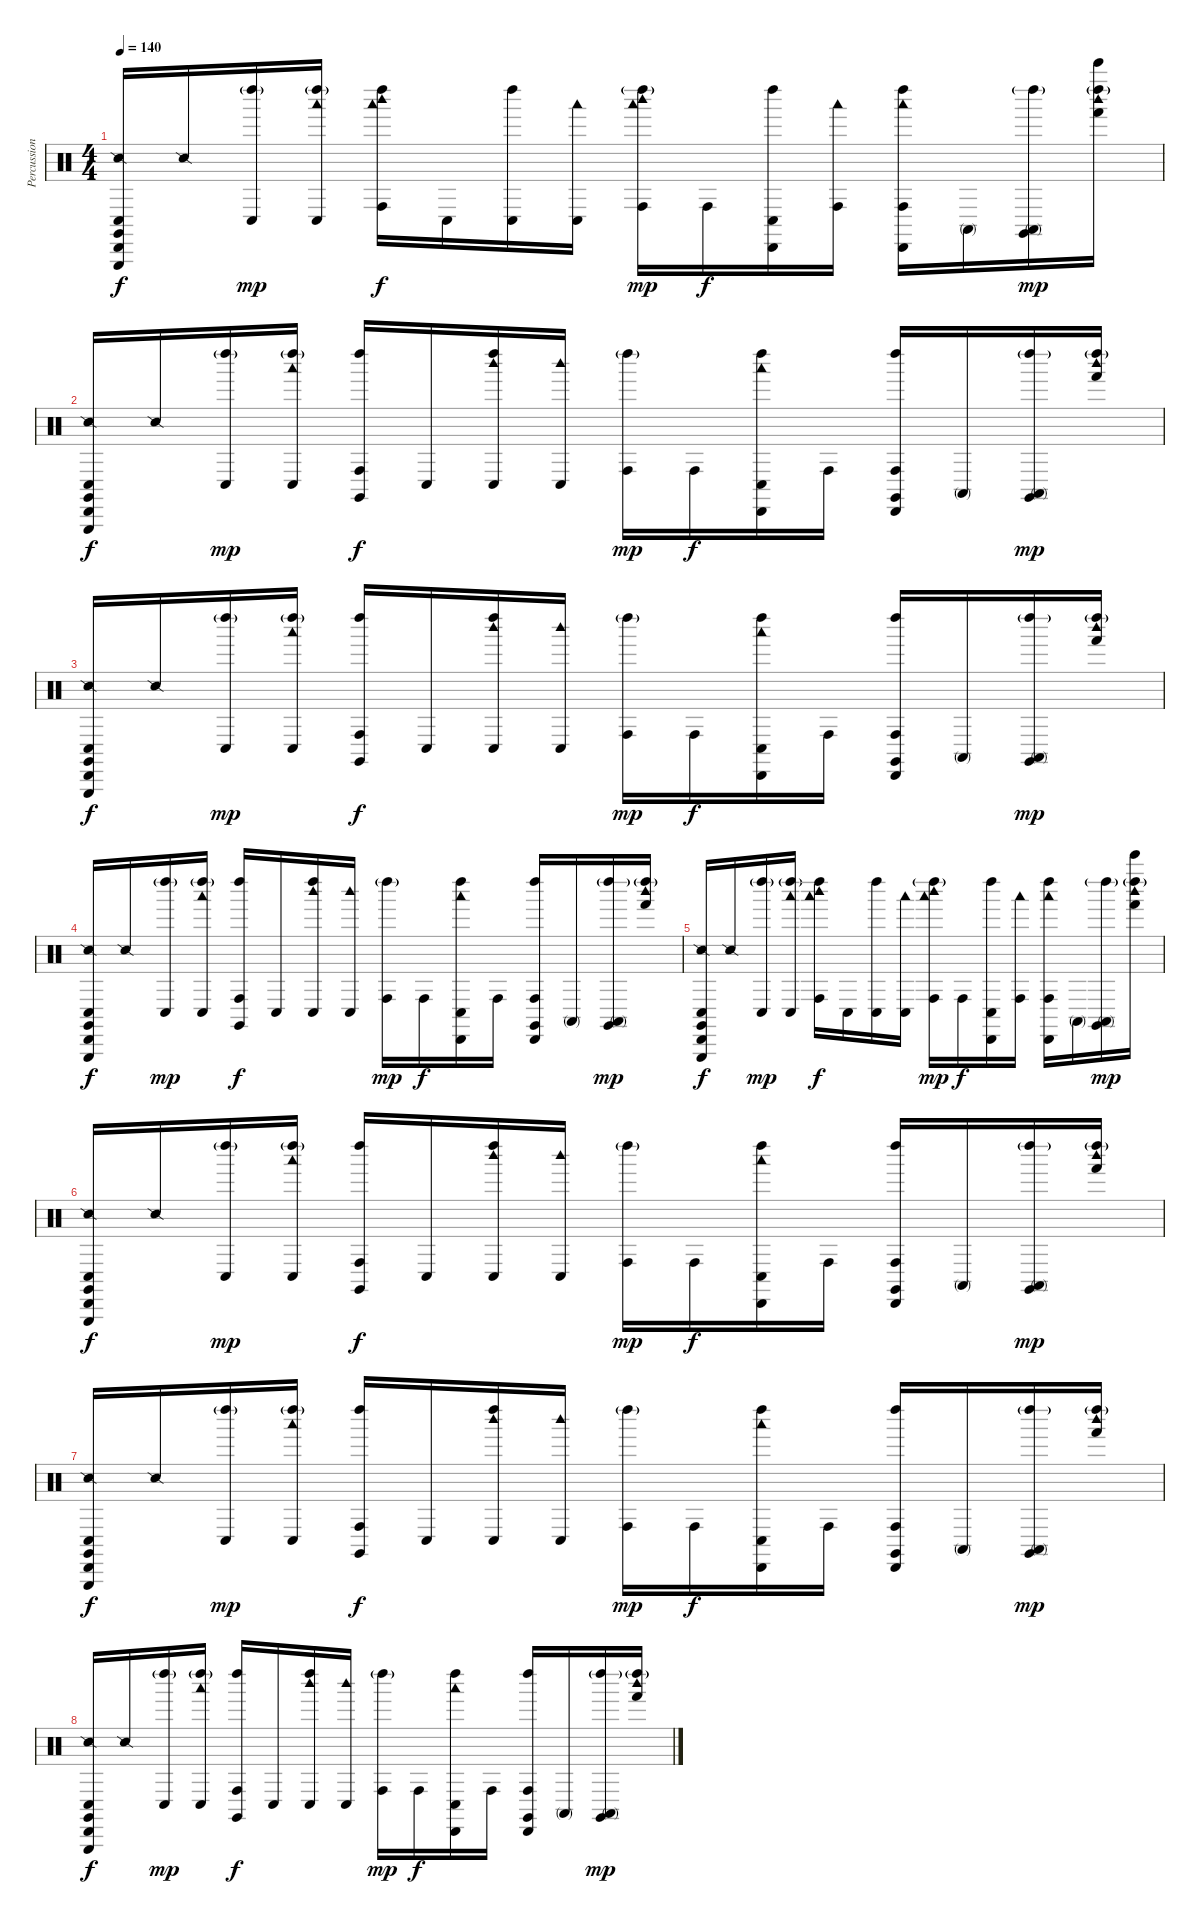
\track ("Percussions" "Percussion") {instrument percussion}
\staff {score}
\articulation defaults
\ts (4 4)
\tempo 140
\clef neutral
\ks c
("Conga low (hit)" "Snare (side stick) 2" "Claves (hit)" "Cabasa (hit)" "Triangle (hit)").16{dy f} "Snare (side stick) 2".16 ("Conga low (hit)" "Left Maraca (hit)"{g}).16{dy mp} ("Conga low (hit)" "Woodblock low (hit)" "Left Maraca (hit)"{g}).16 ("Conga high (hit)" "Woodblock low (hit)" "Woodblock high (hit)" "Left Maraca (hit)").16{dy f} "Conga low (hit)".16 ("Conga low (hit)" "Left Maraca (hit)").16 ("Conga low (hit)" "Woodblock low (hit)").16 ("Conga high (hit)" "Woodblock low (hit)" "Woodblock high (hit)" "Left Maraca (hit)"{g}).16{dy mp} "Conga high (hit)".16{dy f} ("Conga low (hit)" "Cabasa (hit)" "Left Maraca (hit)").16 ("Conga high (hit)" "Woodblock low (hit)").16 ("Conga high (hit)" "Woodblock low (hit)" "Cabasa (hit)" "Left Maraca (hit)").16 "Conga high (mute)".16 ("Conga high (mute)" "Claves (hit)" "Left Maraca (hit)"{g}).16{dy mp} ("Hand (hit)" "Woodblock high (hit)" "Bell Tree (hit)" "Left Maraca (hit)"{g}).16 |
("Conga low (hit)" "Snare (side stick) 2" "Claves (hit)" "Cabasa (hit)" "Triangle (hit)").16{dy f} "Snare (side stick) 2".16 ("Conga low (hit)" "Left Maraca (hit)"{g}).16{dy mp} ("Conga low (hit)" "Woodblock low (hit)" "Left Maraca (hit)"{g}).16 ("Conga high (hit)" "Claves (hit)" "Left Maraca (hit)").16{dy f} "Conga low (hit)".16 ("Conga low (hit)" "Woodblock high (hit)" "Left Maraca (hit)").16 ("Conga low (hit)" "Woodblock high (hit)").16 ("Conga high (hit)" "Left Maraca (hit)"{g}).16{dy mp} "Conga high (hit)".16{dy f} ("Conga low (hit)" "Woodblock low (hit)" "Cabasa (hit)" "Left Maraca (hit)").16 "Conga high (hit)".16 ("Conga high (hit)" "Claves (hit)" "Cabasa (hit)" "Left Maraca (hit)").16 "Conga high (mute)".16 ("Conga high (mute)" "Claves (hit)" "Left Maraca (hit)"{g}).16{dy mp} ("Hand (hit)" "Woodblock high (hit)" "Left Maraca (hit)"{g}).16 |
("Conga low (hit)" "Snare (side stick) 2" "Claves (hit)" "Cabasa (hit)" "Triangle (hit)").16{dy f} "Snare (side stick) 2".16 ("Conga low (hit)" "Left Maraca (hit)"{g}).16{dy mp} ("Conga low (hit)" "Woodblock low (hit)" "Left Maraca (hit)"{g}).16 ("Conga high (hit)" "Claves (hit)" "Left Maraca (hit)").16{dy f} "Conga low (hit)".16 ("Conga low (hit)" "Woodblock high (hit)" "Left Maraca (hit)").16 ("Conga low (hit)" "Woodblock high (hit)").16 ("Conga high (hit)" "Left Maraca (hit)"{g}).16{dy mp} "Conga high (hit)".16{dy f} ("Conga low (hit)" "Woodblock low (hit)" "Cabasa (hit)" "Left Maraca (hit)").16 "Conga high (hit)".16 ("Conga high (hit)" "Claves (hit)" "Cabasa (hit)" "Left Maraca (hit)").16 "Conga high (mute)".16 ("Conga high (mute)" "Claves (hit)" "Left Maraca (hit)"{g}).16{dy mp} ("Hand (hit)" "Woodblock high (hit)" "Left Maraca (hit)"{g}).16 |
("Conga low (hit)" "Snare (side stick) 2" "Claves (hit)" "Cabasa (hit)" "Triangle (hit)").16{dy f} "Snare (side stick) 2".16 ("Conga low (hit)" "Left Maraca (hit)"{g}).16{dy mp} ("Conga low (hit)" "Woodblock low (hit)" "Left Maraca (hit)"{g}).16 ("Conga high (hit)" "Claves (hit)" "Left Maraca (hit)").16{dy f} "Conga low (hit)".16 ("Conga low (hit)" "Woodblock high (hit)" "Left Maraca (hit)").16 ("Conga low (hit)" "Woodblock high (hit)").16 ("Conga high (hit)" "Left Maraca (hit)"{g}).16{dy mp} "Conga high (hit)".16{dy f} ("Conga low (hit)" "Woodblock low (hit)" "Cabasa (hit)" "Left Maraca (hit)").16 "Conga high (hit)".16 ("Conga high (hit)" "Claves (hit)" "Cabasa (hit)" "Left Maraca (hit)").16 "Conga high (mute)".16 ("Conga high (mute)" "Claves (hit)" "Left Maraca (hit)"{g}).16{dy mp} ("Hand (hit)" "Woodblock high (hit)" "Left Maraca (hit)"{g}).16 |
("Conga low (hit)" "Snare (side stick) 2" "Claves (hit)" "Cabasa (hit)" "Triangle (hit)").16{dy f} "Snare (side stick) 2".16 ("Conga low (hit)" "Left Maraca (hit)"{g}).16{dy mp} ("Conga low (hit)" "Woodblock low (hit)" "Left Maraca (hit)"{g}).16 ("Conga high (hit)" "Woodblock low (hit)" "Woodblock high (hit)" "Left Maraca (hit)").16{dy f} "Conga low (hit)".16 ("Conga low (hit)" "Left Maraca (hit)").16 ("Conga low (hit)" "Woodblock low (hit)").16 ("Conga high (hit)" "Woodblock low (hit)" "Woodblock high (hit)" "Left Maraca (hit)"{g}).16{dy mp} "Conga high (hit)".16{dy f} ("Conga low (hit)" "Cabasa (hit)" "Left Maraca (hit)").16 ("Conga high (hit)" "Woodblock low (hit)").16 ("Conga high (hit)" "Woodblock low (hit)" "Cabasa (hit)" "Left Maraca (hit)").16 "Conga high (mute)".16 ("Conga high (mute)" "Claves (hit)" "Left Maraca (hit)"{g}).16{dy mp} ("Hand (hit)" "Woodblock high (hit)" "Bell Tree (hit)" "Left Maraca (hit)"{g}).16 |
("Conga low (hit)" "Snare (side stick) 2" "Claves (hit)" "Cabasa (hit)" "Triangle (hit)").16{dy f} "Snare (side stick) 2".16 ("Conga low (hit)" "Left Maraca (hit)"{g}).16{dy mp} ("Conga low (hit)" "Woodblock low (hit)" "Left Maraca (hit)"{g}).16 ("Conga high (hit)" "Claves (hit)" "Left Maraca (hit)").16{dy f} "Conga low (hit)".16 ("Conga low (hit)" "Woodblock high (hit)" "Left Maraca (hit)").16 ("Conga low (hit)" "Woodblock high (hit)").16 ("Conga high (hit)" "Left Maraca (hit)"{g}).16{dy mp} "Conga high (hit)".16{dy f} ("Conga low (hit)" "Woodblock low (hit)" "Cabasa (hit)" "Left Maraca (hit)").16 "Conga high (hit)".16 ("Conga high (hit)" "Claves (hit)" "Cabasa (hit)" "Left Maraca (hit)").16 "Conga high (mute)".16 ("Conga high (mute)" "Claves (hit)" "Left Maraca (hit)"{g}).16{dy mp} ("Hand (hit)" "Woodblock high (hit)" "Left Maraca (hit)"{g}).16 |
("Conga low (hit)" "Snare (side stick) 2" "Claves (hit)" "Cabasa (hit)" "Triangle (hit)").16{dy f} "Snare (side stick) 2".16 ("Conga low (hit)" "Left Maraca (hit)"{g}).16{dy mp} ("Conga low (hit)" "Woodblock low (hit)" "Left Maraca (hit)"{g}).16 ("Conga high (hit)" "Claves (hit)" "Left Maraca (hit)").16{dy f} "Conga low (hit)".16 ("Conga low (hit)" "Woodblock high (hit)" "Left Maraca (hit)").16 ("Conga low (hit)" "Woodblock high (hit)").16 ("Conga high (hit)" "Left Maraca (hit)"{g}).16{dy mp} "Conga high (hit)".16{dy f} ("Conga low (hit)" "Woodblock low (hit)" "Cabasa (hit)" "Left Maraca (hit)").16 "Conga high (hit)".16 ("Conga high (hit)" "Claves (hit)" "Cabasa (hit)" "Left Maraca (hit)").16 "Conga high (mute)".16 ("Conga high (mute)" "Claves (hit)" "Left Maraca (hit)"{g}).16{dy mp} ("Hand (hit)" "Woodblock high (hit)" "Left Maraca (hit)"{g}).16 |
("Conga low (hit)" "Snare (side stick) 2" "Claves (hit)" "Cabasa (hit)" "Triangle (hit)").16{dy f} "Snare (side stick) 2".16 ("Conga low (hit)" "Left Maraca (hit)"{g}).16{dy mp} ("Conga low (hit)" "Woodblock low (hit)" "Left Maraca (hit)"{g}).16 ("Conga high (hit)" "Claves (hit)" "Left Maraca (hit)").16{dy f} "Conga low (hit)".16 ("Conga low (hit)" "Woodblock high (hit)" "Left Maraca (hit)").16 ("Conga low (hit)" "Woodblock high (hit)").16 ("Conga high (hit)" "Left Maraca (hit)"{g}).16{dy mp} "Conga high (hit)".16{dy f} ("Conga low (hit)" "Woodblock low (hit)" "Cabasa (hit)" "Left Maraca (hit)").16 "Conga high (hit)".16 ("Conga high (hit)" "Claves (hit)" "Cabasa (hit)" "Left Maraca (hit)").16 "Conga high (mute)".16 ("Conga high (mute)" "Claves (hit)" "Left Maraca (hit)"{g}).16{dy mp} ("Hand (hit)" "Woodblock high (hit)" "Left Maraca (hit)"{g}).16
